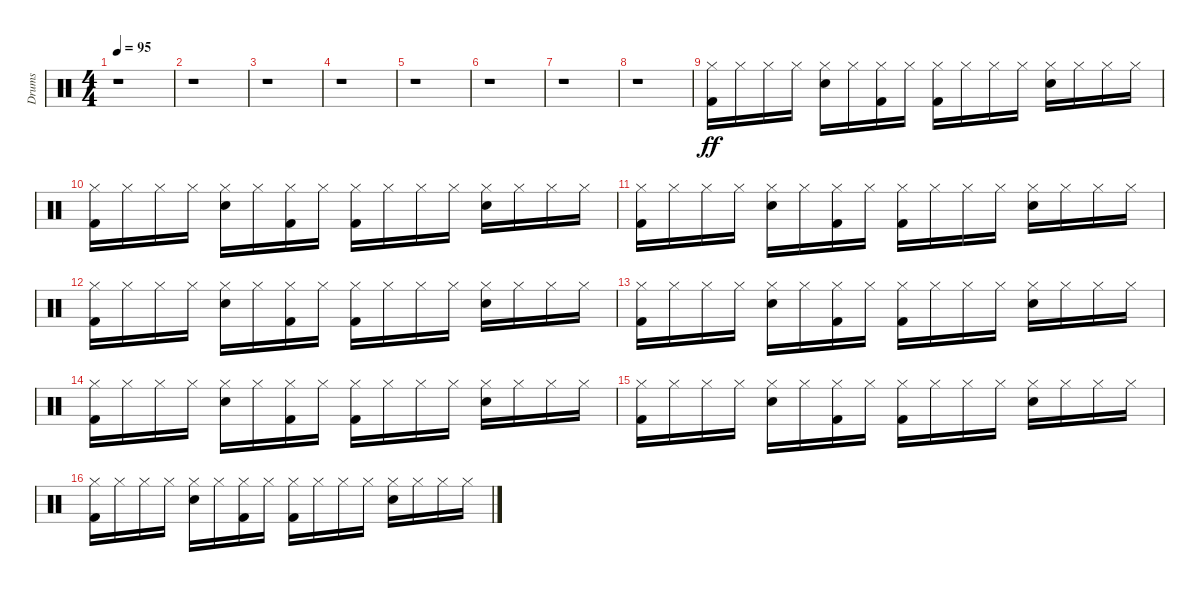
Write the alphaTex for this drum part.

\track ("Drums" "Drums") {instrument percussion}
\staff {score}
\articulation defaults
\ts (4 4)
\tempo 95
\clef neutral
\ks c
r.1{dy ff} |
r.1 |
r.1 |
r.1 |
r.1 |
r.1 |
r.1 |
r.1 |
("Kick (hit) 2" "Hi-Hat (closed)").16 "Hi-Hat (closed)".16 "Hi-Hat (closed)".16 "Hi-Hat (closed)".16 ("Snare (hit) 2" "Hi-Hat (closed)").16 "Hi-Hat (closed)".16 ("Kick (hit) 2" "Hi-Hat (closed)").16 "Hi-Hat (closed)".16 ("Kick (hit) 2" "Hi-Hat (closed)").16 "Hi-Hat (closed)".16 "Hi-Hat (closed)".16 "Hi-Hat (closed)".16 ("Snare (hit) 2" "Hi-Hat (closed)").16 "Hi-Hat (closed)".16 "Hi-Hat (closed)".16 "Hi-Hat (closed)".16 |
("Kick (hit) 2" "Hi-Hat (closed)").16 "Hi-Hat (closed)".16 "Hi-Hat (closed)".16 "Hi-Hat (closed)".16 ("Snare (hit) 2" "Hi-Hat (closed)").16 "Hi-Hat (closed)".16 ("Kick (hit) 2" "Hi-Hat (closed)").16 "Hi-Hat (closed)".16 ("Kick (hit) 2" "Hi-Hat (closed)").16 "Hi-Hat (closed)".16 "Hi-Hat (closed)".16 "Hi-Hat (closed)".16 ("Snare (hit) 2" "Hi-Hat (closed)").16 "Hi-Hat (closed)".16 "Hi-Hat (closed)".16 "Hi-Hat (closed)".16 |
("Kick (hit) 2" "Hi-Hat (closed)").16 "Hi-Hat (closed)".16 "Hi-Hat (closed)".16 "Hi-Hat (closed)".16 ("Snare (hit) 2" "Hi-Hat (closed)").16 "Hi-Hat (closed)".16 ("Kick (hit) 2" "Hi-Hat (closed)").16 "Hi-Hat (closed)".16 ("Kick (hit) 2" "Hi-Hat (closed)").16 "Hi-Hat (closed)".16 "Hi-Hat (closed)".16 "Hi-Hat (closed)".16 ("Snare (hit) 2" "Hi-Hat (closed)").16 "Hi-Hat (closed)".16 "Hi-Hat (closed)".16 "Hi-Hat (closed)".16 |
("Kick (hit) 2" "Hi-Hat (closed)").16 "Hi-Hat (closed)".16 "Hi-Hat (closed)".16 "Hi-Hat (closed)".16 ("Snare (hit) 2" "Hi-Hat (closed)").16 "Hi-Hat (closed)".16 ("Kick (hit) 2" "Hi-Hat (closed)").16 "Hi-Hat (closed)".16 ("Kick (hit) 2" "Hi-Hat (closed)").16 "Hi-Hat (closed)".16 "Hi-Hat (closed)".16 "Hi-Hat (closed)".16 ("Snare (hit) 2" "Hi-Hat (closed)").16 "Hi-Hat (closed)".16 "Hi-Hat (closed)".16 "Hi-Hat (closed)".16 |
("Kick (hit) 2" "Hi-Hat (closed)").16 "Hi-Hat (closed)".16 "Hi-Hat (closed)".16 "Hi-Hat (closed)".16 ("Snare (hit) 2" "Hi-Hat (closed)").16 "Hi-Hat (closed)".16 ("Kick (hit) 2" "Hi-Hat (closed)").16 "Hi-Hat (closed)".16 ("Kick (hit) 2" "Hi-Hat (closed)").16 "Hi-Hat (closed)".16 "Hi-Hat (closed)".16 "Hi-Hat (closed)".16 ("Snare (hit) 2" "Hi-Hat (closed)").16 "Hi-Hat (closed)".16 "Hi-Hat (closed)".16 "Hi-Hat (closed)".16 |
("Kick (hit) 2" "Hi-Hat (closed)").16 "Hi-Hat (closed)".16 "Hi-Hat (closed)".16 "Hi-Hat (closed)".16 ("Snare (hit) 2" "Hi-Hat (closed)").16 "Hi-Hat (closed)".16 ("Kick (hit) 2" "Hi-Hat (closed)").16 "Hi-Hat (closed)".16 ("Kick (hit) 2" "Hi-Hat (closed)").16 "Hi-Hat (closed)".16 "Hi-Hat (closed)".16 "Hi-Hat (closed)".16 ("Snare (hit) 2" "Hi-Hat (closed)").16 "Hi-Hat (closed)".16 "Hi-Hat (closed)".16 "Hi-Hat (closed)".16 |
("Kick (hit) 2" "Hi-Hat (closed)").16 "Hi-Hat (closed)".16 "Hi-Hat (closed)".16 "Hi-Hat (closed)".16 ("Snare (hit) 2" "Hi-Hat (closed)").16 "Hi-Hat (closed)".16 ("Kick (hit) 2" "Hi-Hat (closed)").16 "Hi-Hat (closed)".16 ("Kick (hit) 2" "Hi-Hat (closed)").16 "Hi-Hat (closed)".16 "Hi-Hat (closed)".16 "Hi-Hat (closed)".16 ("Snare (hit) 2" "Hi-Hat (closed)").16 "Hi-Hat (closed)".16 "Hi-Hat (closed)".16 "Hi-Hat (closed)".16 |
("Kick (hit) 2" "Hi-Hat (closed)").16 "Hi-Hat (closed)".16 "Hi-Hat (closed)".16 "Hi-Hat (closed)".16 ("Snare (hit) 2" "Hi-Hat (closed)").16 "Hi-Hat (closed)".16 ("Kick (hit) 2" "Hi-Hat (closed)").16 "Hi-Hat (closed)".16 ("Kick (hit) 2" "Hi-Hat (closed)").16 "Hi-Hat (closed)".16 "Hi-Hat (closed)".16 "Hi-Hat (closed)".16 ("Snare (hit) 2" "Hi-Hat (closed)").16 "Hi-Hat (closed)".16 "Hi-Hat (closed)".16 "Hi-Hat (closed)".16
